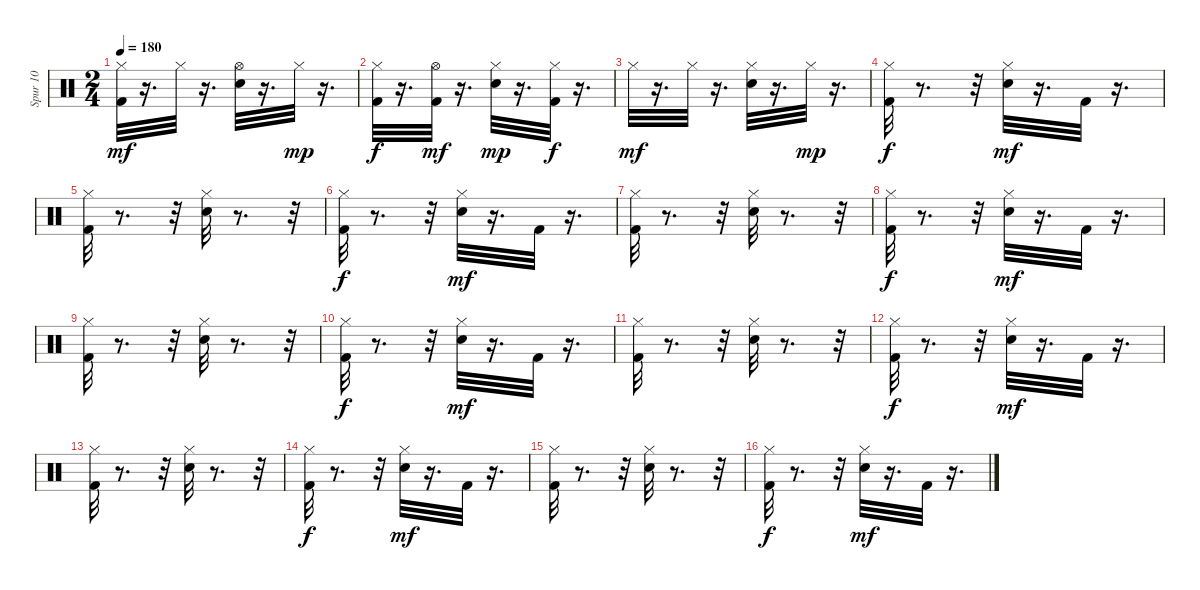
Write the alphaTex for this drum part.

\track ("Spur 10" "Spur 10") {instrument percussion}
\staff {score}
\articulation defaults
\ts (2 4)
\tempo 180
\clef neutral
\ks c
("Hi-Hat (closed)" "Kick (hit) 2").32{dy mf} r.16{d} "Hi-Hat (closed)".32 r.16{d} ("Electric Snare (hit)" "Hi-Hat (open)").32 r.16{d} "Hi-Hat (closed)".32{dy mp} r.16{d} |
("Hi-Hat (closed)" "Kick (hit) 2").32{dy f} r.16{d} ("Hi-Hat (open)" "Kick (hit) 2").32{dy mf} r.16{d} ("Electric Snare (hit)" "Hi-Hat (closed)").32{dy mp} r.16{d} ("Hi-Hat (closed)" "Kick (hit) 2").32{dy f} r.16{d} |
"Hi-Hat (closed)".32{dy mf} r.16{d} "Hi-Hat (closed)".32 r.16{d} ("Electric Snare (hit)" "Hi-Hat (closed)").32 r.16{d} "Hi-Hat (closed)".32{dy mp} r.16{d} |
("Hi-Hat (closed)" "Kick (hit) 2").32{dy f} r.8{d} r.32 ("Electric Snare (hit)" "Hi-Hat (closed)").32{dy mf} r.16{d} "Kick (hit) 2".32 r.16{d} |
("Hi-Hat (closed)" "Kick (hit) 2").32 r.8{d} r.32 ("Electric Snare (hit)" "Hi-Hat (closed)").32 r.8{d} r.32 |
("Hi-Hat (closed)" "Kick (hit) 2").32{dy f} r.8{d} r.32 ("Electric Snare (hit)" "Hi-Hat (closed)").32{dy mf} r.16{d} "Kick (hit) 2".32 r.16{d} |
("Hi-Hat (closed)" "Kick (hit) 2").32 r.8{d} r.32 ("Electric Snare (hit)" "Hi-Hat (closed)").32 r.8{d} r.32 |
("Hi-Hat (closed)" "Kick (hit) 2").32{dy f} r.8{d} r.32 ("Electric Snare (hit)" "Hi-Hat (closed)").32{dy mf} r.16{d} "Kick (hit) 2".32 r.16{d} |
("Hi-Hat (closed)" "Kick (hit) 2").32 r.8{d} r.32 ("Electric Snare (hit)" "Hi-Hat (closed)").32 r.8{d} r.32 |
("Hi-Hat (closed)" "Kick (hit) 2").32{dy f} r.8{d} r.32 ("Electric Snare (hit)" "Hi-Hat (closed)").32{dy mf} r.16{d} "Kick (hit) 2".32 r.16{d} |
("Hi-Hat (closed)" "Kick (hit) 2").32 r.8{d} r.32 ("Electric Snare (hit)" "Hi-Hat (closed)").32 r.8{d} r.32 |
("Hi-Hat (closed)" "Kick (hit) 2").32{dy f} r.8{d} r.32 ("Electric Snare (hit)" "Hi-Hat (closed)").32{dy mf} r.16{d} "Kick (hit) 2".32 r.16{d} |
("Hi-Hat (closed)" "Kick (hit) 2").32 r.8{d} r.32 ("Electric Snare (hit)" "Hi-Hat (closed)").32 r.8{d} r.32 |
("Hi-Hat (closed)" "Kick (hit) 2").32{dy f} r.8{d} r.32 ("Electric Snare (hit)" "Hi-Hat (closed)").32{dy mf} r.16{d} "Kick (hit) 2".32 r.16{d} |
("Hi-Hat (closed)" "Kick (hit) 2").32 r.8{d} r.32 ("Electric Snare (hit)" "Hi-Hat (closed)").32 r.8{d} r.32 |
("Hi-Hat (closed)" "Kick (hit) 2").32{dy f} r.8{d} r.32 ("Electric Snare (hit)" "Hi-Hat (closed)").32{dy mf} r.16{d} "Kick (hit) 2".32 r.16{d}
